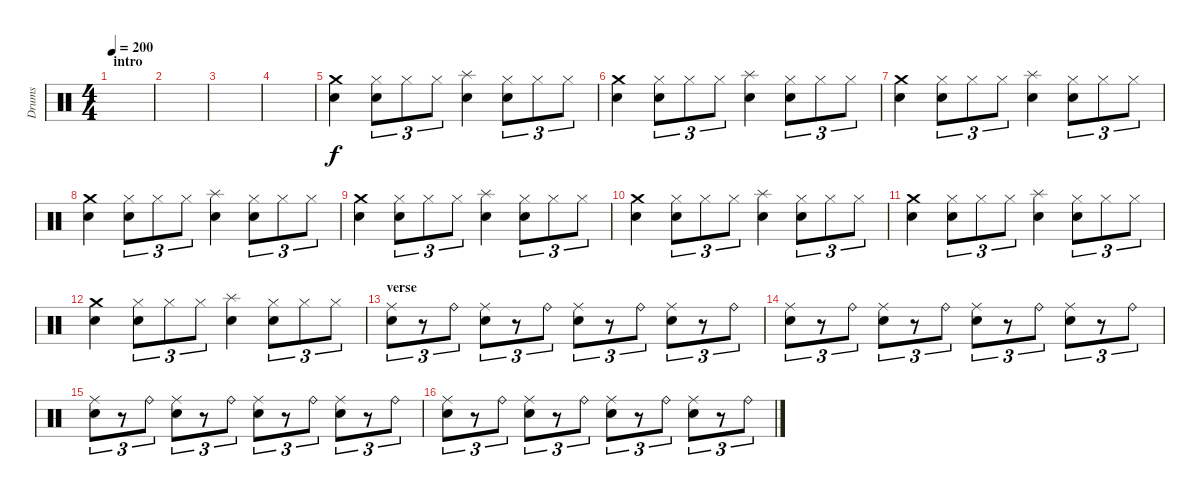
\track ("Drums" "Drums") {instrument percussion}
\staff {score}
\articulation defaults
\ts (4 4)
\section ("" "intro")
\tempo 200
\clef neutral
\ks c
|
|
|
|
("Electric Snare (hit)" "Crash medium (hit)").4 ("Hi-Hat (closed)" "Electric Snare (hit)").8{tu (3 2)} "Hi-Hat (closed)".8{tu (3 2)} "Hi-Hat (closed)".8{tu (3 2)} ("Electric Snare (hit)" "Splash (hit)").4 ("Hi-Hat (closed)" "Electric Snare (hit)").8{tu (3 2)} "Hi-Hat (closed)".8{tu (3 2)} "Hi-Hat (closed)".8{tu (3 2)} |
("Electric Snare (hit)" "Crash medium (hit)").4 ("Hi-Hat (closed)" "Electric Snare (hit)").8{tu (3 2)} "Hi-Hat (closed)".8{tu (3 2)} "Hi-Hat (closed)".8{tu (3 2)} ("Electric Snare (hit)" "Splash (hit)").4 ("Hi-Hat (closed)" "Electric Snare (hit)").8{tu (3 2)} "Hi-Hat (closed)".8{tu (3 2)} "Hi-Hat (closed)".8{tu (3 2)} |
("Electric Snare (hit)" "Crash medium (hit)").4 ("Hi-Hat (closed)" "Electric Snare (hit)").8{tu (3 2)} "Hi-Hat (closed)".8{tu (3 2)} "Hi-Hat (closed)".8{tu (3 2)} ("Electric Snare (hit)" "Splash (hit)").4 ("Hi-Hat (closed)" "Electric Snare (hit)").8{tu (3 2)} "Hi-Hat (closed)".8{tu (3 2)} "Hi-Hat (closed)".8{tu (3 2)} |
("Electric Snare (hit)" "Crash medium (hit)").4 ("Hi-Hat (closed)" "Electric Snare (hit)").8{tu (3 2)} "Hi-Hat (closed)".8{tu (3 2)} "Hi-Hat (closed)".8{tu (3 2)} ("Electric Snare (hit)" "Splash (hit)").4 ("Hi-Hat (closed)" "Electric Snare (hit)").8{tu (3 2)} "Hi-Hat (closed)".8{tu (3 2)} "Hi-Hat (closed)".8{tu (3 2)} |
("Electric Snare (hit)" "Crash medium (hit)").4 ("Hi-Hat (closed)" "Electric Snare (hit)").8{tu (3 2)} "Hi-Hat (closed)".8{tu (3 2)} "Hi-Hat (closed)".8{tu (3 2)} ("Electric Snare (hit)" "Splash (hit)").4 ("Hi-Hat (closed)" "Electric Snare (hit)").8{tu (3 2)} "Hi-Hat (closed)".8{tu (3 2)} "Hi-Hat (closed)".8{tu (3 2)} |
("Electric Snare (hit)" "Crash medium (hit)").4 ("Hi-Hat (closed)" "Electric Snare (hit)").8{tu (3 2)} "Hi-Hat (closed)".8{tu (3 2)} "Hi-Hat (closed)".8{tu (3 2)} ("Electric Snare (hit)" "Splash (hit)").4 ("Hi-Hat (closed)" "Electric Snare (hit)").8{tu (3 2)} "Hi-Hat (closed)".8{tu (3 2)} "Hi-Hat (closed)".8{tu (3 2)} |
("Electric Snare (hit)" "Crash medium (hit)").4 ("Hi-Hat (closed)" "Electric Snare (hit)").8{tu (3 2)} "Hi-Hat (closed)".8{tu (3 2)} "Hi-Hat (closed)".8{tu (3 2)} ("Electric Snare (hit)" "Splash (hit)").4 ("Hi-Hat (closed)" "Electric Snare (hit)").8{tu (3 2)} "Hi-Hat (closed)".8{tu (3 2)} "Hi-Hat (closed)".8{tu (3 2)} |
("Electric Snare (hit)" "Crash medium (hit)").4 ("Hi-Hat (closed)" "Electric Snare (hit)").8{tu (3 2)} "Hi-Hat (closed)".8{tu (3 2)} "Hi-Hat (closed)".8{tu (3 2)} ("Electric Snare (hit)" "Splash (hit)").4 ("Hi-Hat (closed)" "Electric Snare (hit)").8{tu (3 2)} "Hi-Hat (closed)".8{tu (3 2)} "Hi-Hat (closed)".8{tu (3 2)} |
\section ("" "verse")
("Electric Snare (hit)" "Ride (middle)").8{tu (3 2)} r.8{tu (3 2)} "Ride (bell)".8{tu (3 2)} ("Electric Snare (hit)" "Ride (middle)").8{tu (3 2)} r.8{tu (3 2)} "Ride (bell)".8{tu (3 2)} ("Electric Snare (hit)" "Ride (middle)").8{tu (3 2)} r.8{tu (3 2)} "Ride (bell)".8{tu (3 2)} ("Electric Snare (hit)" "Ride (middle)").8{tu (3 2)} r.8{tu (3 2)} "Ride (bell)".8{tu (3 2)} |
("Electric Snare (hit)" "Ride (middle)").8{tu (3 2)} r.8{tu (3 2)} "Ride (bell)".8{tu (3 2)} ("Electric Snare (hit)" "Ride (middle)").8{tu (3 2)} r.8{tu (3 2)} "Ride (bell)".8{tu (3 2)} ("Electric Snare (hit)" "Ride (middle)").8{tu (3 2)} r.8{tu (3 2)} "Ride (bell)".8{tu (3 2)} ("Electric Snare (hit)" "Ride (middle)").8{tu (3 2)} r.8{tu (3 2)} "Ride (bell)".8{tu (3 2)} |
("Electric Snare (hit)" "Ride (middle)").8{tu (3 2)} r.8{tu (3 2)} "Ride (bell)".8{tu (3 2)} ("Electric Snare (hit)" "Ride (middle)").8{tu (3 2)} r.8{tu (3 2)} "Ride (bell)".8{tu (3 2)} ("Electric Snare (hit)" "Ride (middle)").8{tu (3 2)} r.8{tu (3 2)} "Ride (bell)".8{tu (3 2)} ("Electric Snare (hit)" "Ride (middle)").8{tu (3 2)} r.8{tu (3 2)} "Ride (bell)".8{tu (3 2)} |
("Electric Snare (hit)" "Ride (middle)").8{tu (3 2)} r.8{tu (3 2)} "Ride (bell)".8{tu (3 2)} ("Electric Snare (hit)" "Ride (middle)").8{tu (3 2)} r.8{tu (3 2)} "Ride (bell)".8{tu (3 2)} ("Electric Snare (hit)" "Ride (middle)").8{tu (3 2)} r.8{tu (3 2)} "Ride (bell)".8{tu (3 2)} ("Electric Snare (hit)" "Ride (middle)").8{tu (3 2)} r.8{tu (3 2)} "Ride (bell)".8{tu (3 2)}
